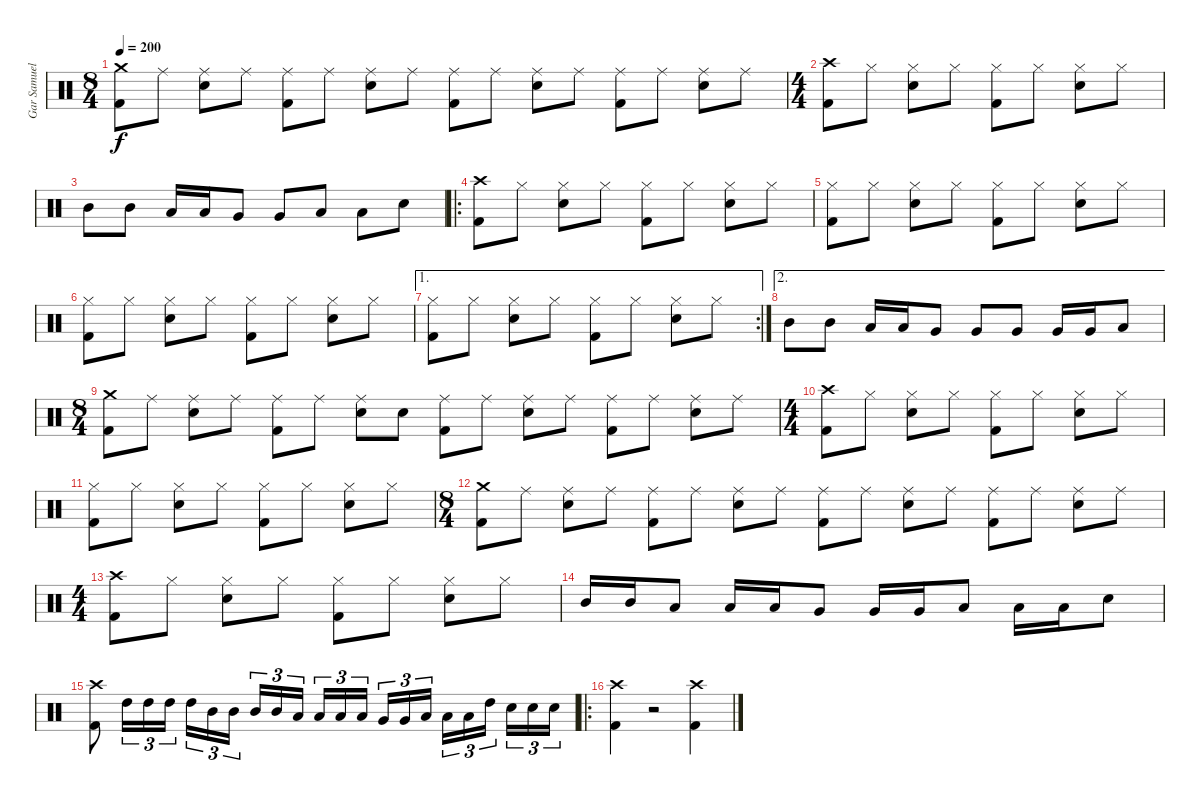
\track ("Gar Samuelson" "Gar Samuel") {instrument percussion}
\staff {score}
\articulation defaults
\ts (8 4)
\tempo 200
\clef neutral
\ks c
("Crash medium (hit)" "Kick (hit) 2").8{dy f} "Ride (middle)".8 ("Ride (middle)" "Snare (hit) 2").8 "Ride (middle)".8 ("Ride (middle)" "Kick (hit) 2").8 "Ride (middle)".8 ("Ride (middle)" "Snare (hit) 2").8 "Ride (middle)".8 ("Ride (middle)" "Kick (hit) 2").8 "Ride (middle)".8 ("Ride (middle)" "Snare (hit) 2").8 "Ride (middle)".8 ("Ride (middle)" "Kick (hit) 2").8 "Ride (middle)".8 ("Ride (middle)" "Snare (hit) 2").8 "Ride (middle)".8 |
\ts (4 4)
("Crash high (hit)" "Kick (hit) 2").8 "Hi-Hat (closed)".8 ("Hi-Hat (closed)" "Snare (hit) 2").8 "Hi-Hat (closed)".8 ("Hi-Hat (closed)" "Kick (hit) 2").8 "Hi-Hat (closed)".8 ("Hi-Hat (closed)" "Snare (hit) 2").8 "Hi-Hat (closed)".8 |
"Mid Tom (hit)".8 "Mid Tom (hit)".8 "Low Tom (hit)".16 "Low Tom (hit)".16 "Very Low Tom (hit)".8 "Very Low Tom (hit)".8 "Low Floor Tom (hit)".8 "Low Floor Tom (hit)".8 "Snare (hit) 2".8 |
\ro
("Crash high (hit)" "Kick (hit) 2").8 "Hi-Hat (closed)".8 ("Hi-Hat (closed)" "Snare (hit) 2").8 "Hi-Hat (closed)".8 ("Hi-Hat (closed)" "Kick (hit) 2").8 "Hi-Hat (closed)".8 ("Hi-Hat (closed)" "Snare (hit) 2").8 "Hi-Hat (closed)".8 |
("Hi-Hat (closed)" "Kick (hit) 2").8 "Hi-Hat (closed)".8 ("Hi-Hat (closed)" "Snare (hit) 2").8 "Hi-Hat (closed)".8 ("Hi-Hat (closed)" "Kick (hit) 2").8 "Hi-Hat (closed)".8 ("Hi-Hat (closed)" "Snare (hit) 2").8 "Hi-Hat (closed)".8 |
("Hi-Hat (closed)" "Kick (hit) 2").8 "Hi-Hat (closed)".8 ("Hi-Hat (closed)" "Snare (hit) 2").8 "Hi-Hat (closed)".8 ("Hi-Hat (closed)" "Kick (hit) 2").8 "Hi-Hat (closed)".8 ("Hi-Hat (closed)" "Snare (hit) 2").8 "Hi-Hat (closed)".8 |
\ae 1
\rc 2
("Hi-Hat (closed)" "Kick (hit) 2").8 "Hi-Hat (closed)".8 ("Hi-Hat (closed)" "Snare (hit) 2").8 "Hi-Hat (closed)".8 ("Hi-Hat (closed)" "Kick (hit) 2").8 "Hi-Hat (closed)".8 ("Hi-Hat (closed)" "Snare (hit) 2").8 "Hi-Hat (closed)".8 |
\ae 2 "Mid Tom (hit)".8 "Mid Tom (hit)".8 "Low Tom (hit)".16 "Low Tom (hit)".16 "Very Low Tom (hit)".8 "Very Low Tom (hit)".8 "Very Low Tom (hit)".8 "Very Low Tom (hit)".16 "Very Low Tom (hit)".16 "Low Floor Tom (hit)".8
|
\ts (8 4)
("Crash medium (hit)" "Kick (hit) 2").8 "Ride (middle)".8 ("Ride (middle)" "Snare (hit) 2").8 "Ride (middle)".8 ("Ride (middle)" "Kick (hit) 2").8 "Ride (middle)".8 ("Ride (middle)" "Snare (hit) 2").8 "Snare (hit)".8 ("Ride (middle)" "Kick (hit) 2").8 "Ride (middle)".8 ("Ride (middle)" "Snare (hit) 2").8 "Ride (middle)".8 ("Ride (middle)" "Kick (hit) 2").8 "Ride (middle)".8 ("Ride (middle)" "Snare (hit) 2").8 "Ride (middle)".8 |
\ts (4 4)
("Crash high (hit)" "Kick (hit) 2").8 "Hi-Hat (closed)".8 ("Hi-Hat (closed)" "Snare (hit) 2").8 "Hi-Hat (closed)".8 ("Hi-Hat (closed)" "Kick (hit) 2").8 "Hi-Hat (closed)".8 ("Hi-Hat (closed)" "Snare (hit) 2").8 "Hi-Hat (closed)".8 |
("Hi-Hat (closed)" "Kick (hit) 2").8 "Hi-Hat (closed)".8 ("Hi-Hat (closed)" "Snare (hit) 2").8 "Hi-Hat (closed)".8 ("Hi-Hat (closed)" "Kick (hit) 2").8 "Hi-Hat (closed)".8 ("Hi-Hat (closed)" "Snare (hit) 2").8 "Hi-Hat (closed)".8 |
\ts (8 4)
("Crash medium (hit)" "Kick (hit) 2").8 "Ride (middle)".8 ("Ride (middle)" "Snare (hit) 2").8 "Ride (middle)".8 ("Ride (middle)" "Kick (hit) 2").8 "Ride (middle)".8 ("Ride (middle)" "Snare (hit) 2").8 "Ride (middle)".8 ("Ride (middle)" "Kick (hit) 2").8 "Ride (middle)".8 ("Ride (middle)" "Snare (hit) 2").8 "Ride (middle)".8 ("Ride (middle)" "Kick (hit) 2").8 "Ride (middle)".8 ("Ride (middle)" "Snare (hit) 2").8 "Ride (middle)".8 |
\ts (4 4)
("Crash high (hit)" "Kick (hit) 2").8 "Hi-Hat (closed)".8 ("Hi-Hat (closed)" "Snare (hit) 2").8 "Hi-Hat (closed)".8 ("Hi-Hat (closed)" "Kick (hit) 2").8 "Hi-Hat (closed)".8 ("Hi-Hat (closed)" "Snare (hit) 2").8 "Hi-Hat (closed)".8 |
"Mid Tom (hit)".16 "Mid Tom (hit)".16 "Low Tom (hit)".8 "Low Tom (hit)".16 "Low Tom (hit)".16 "Very Low Tom (hit)".8 "Very Low Tom (hit)".16 "Very Low Tom (hit)".16 "Low Floor Tom (hit)".8 "Low Floor Tom (hit)".16 "Low Floor Tom (hit)".16 "Snare (hit) 2".8 |
("Crash high (hit)" "Kick (hit) 2").8 "High Tom (hit)".16{tu (3 2)} "High Tom (hit)".16{tu (3 2)} "High Tom (hit)".16{tu (3 2)} "High Tom (hit)".16{tu (3 2)} "Mid Tom (hit)".16{tu (3 2)} "Mid Tom (hit)".16{tu (3 2)} "Mid Tom (hit)".16{tu (3 2)} "Mid Tom (hit)".16{tu (3 2)} "Low Tom (hit)".16{tu (3 2)} "Low Tom (hit)".16{tu (3 2)} "Low Tom (hit)".16{tu (3 2)} "Low Tom (hit)".16{tu (3 2)} "Very Low Tom (hit)".16{tu (3 2)} "Very Low Tom (hit)".16{tu (3 2)} "Low Floor Tom (hit)".16{tu (3 2)} "Low Floor Tom (hit)".16{tu (3 2)} "Low Floor Tom (hit)".16{tu (3 2)} "High Tom (hit)".16{tu (3 2)} "Snare (hit) 2".16{tu (3 2)} "Snare (hit) 2".16{tu (3 2)} "Snare (hit) 2".16{tu (3 2)} |
\ro
("Crash high (hit)" "Kick (hit) 2").4 r.2 ("Crash high (hit)" "Kick (hit) 2").4
